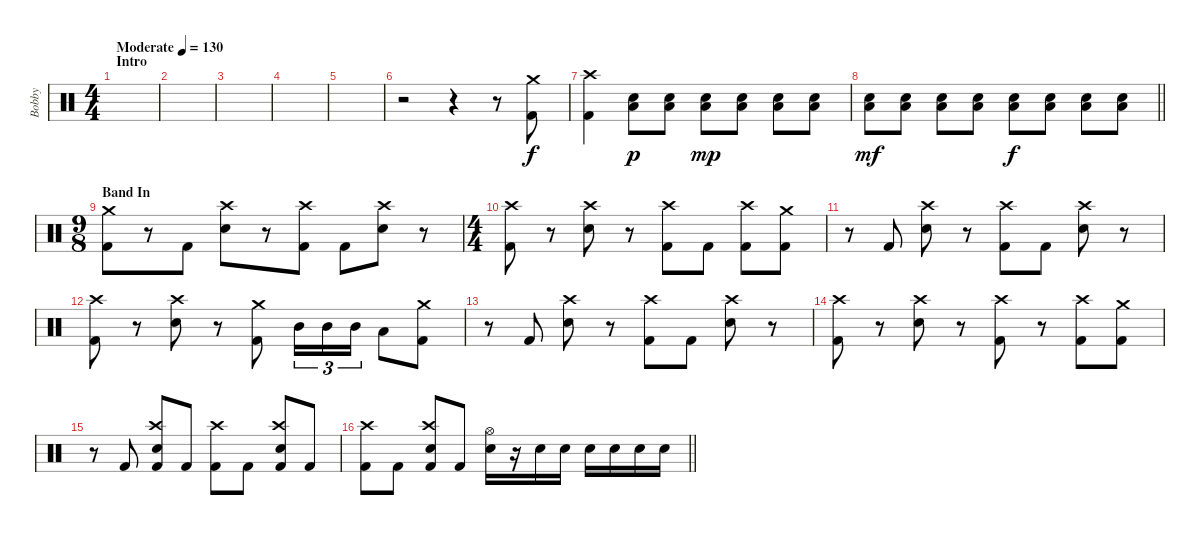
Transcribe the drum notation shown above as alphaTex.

\track ("Bobby" "Bobby") {instrument percussion}
\staff {score}
\articulation defaults
\ts (4 4)
\section ("" "Intro")
\tempo (130 "Moderate")
\clef neutral
\ks c
|
|
|
|
|
r.2 r.4 r.8 ("Crash medium (hit)" "Kick (hit) 2").8 |
("Crash high (hit)" "Kick (hit) 2").4 ("Electric Snare (hit)" "Low Tom (hit)").8{dy p} ("Electric Snare (hit)" "Low Tom (hit)").8 ("Electric Snare (hit)" "Low Tom (hit)").8{dy mp} ("Electric Snare (hit)" "Low Tom (hit)").8 ("Electric Snare (hit)" "Low Tom (hit)").8 ("Electric Snare (hit)" "Low Tom (hit)").8 |
\barLineRight lightlight
("Electric Snare (hit)" "Low Tom (hit)").8{dy mf} ("Electric Snare (hit)" "Low Tom (hit)").8 ("Electric Snare (hit)" "Low Tom (hit)").8 ("Electric Snare (hit)" "Low Tom (hit)").8 ("Electric Snare (hit)" "Low Tom (hit)").8{dy f} ("Electric Snare (hit)" "Low Tom (hit)").8 ("Electric Snare (hit)" "Low Tom (hit)").8 ("Electric Snare (hit)" "Low Tom (hit)").8 |
\ts (9 8)
\section ("" "Band In")
("Crash medium (hit)" "Kick (hit) 2").8 r.8 "Kick (hit) 2".8 ("Crash high (hit)" "Electric Snare (hit)").8 r.8 ("Crash high (hit)" "Kick (hit) 2").8 "Kick (hit) 2".8 ("Crash high (hit)" "Electric Snare (hit)").8 r.8 |
\ts (4 4)
("Crash high (hit)" "Kick (hit) 2").8 r.8 ("Crash high (hit)" "Electric Snare (hit)").8 r.8 ("Crash high (hit)" "Kick (hit) 2").8 "Kick (hit) 2".8 ("Crash high (hit)" "Kick (hit) 2").8 ("Crash medium (hit)" "Kick (hit) 2").8 |
r.8 "Kick (hit) 2".8 ("Crash high (hit)" "Electric Snare (hit)").8 r.8 ("Crash high (hit)" "Kick (hit) 2").8 "Kick (hit) 2".8 ("Crash high (hit)" "Electric Snare (hit)").8 r.8 |
("Crash high (hit)" "Kick (hit) 2").8 r.8 ("Crash high (hit)" "Electric Snare (hit)").8 r.8 ("Crash medium (hit)" "Kick (hit) 2").8 "Mid Tom (hit)".16{tu (3 2)} "Mid Tom (hit)".16{tu (3 2)} "Mid Tom (hit)".16{tu (3 2)} "Low Tom (hit)".8 ("Crash medium (hit)" "Kick (hit) 2").8 |
r.8 "Kick (hit) 2".8 ("Crash high (hit)" "Electric Snare (hit)").8 r.8 ("Crash high (hit)" "Kick (hit) 2").8 "Kick (hit) 2".8 ("Crash high (hit)" "Electric Snare (hit)").8 r.8 |
("Crash high (hit)" "Kick (hit) 2").8 r.8 ("Crash high (hit)" "Electric Snare (hit)").8 r.8 ("Crash high (hit)" "Kick (hit) 2").8 r.8 ("Crash high (hit)" "Kick (hit) 2").8 ("Crash medium (hit)" "Kick (hit) 2").8 |
r.8 "Kick (hit) 2".8 ("Crash high (hit)" "Electric Snare (hit)" "Kick (hit) 2").8 "Kick (hit) 2".8 ("Crash high (hit)" "Kick (hit) 2").8 "Kick (hit) 2".8 ("Crash high (hit)" "Electric Snare (hit)" "Kick (hit) 2").8 "Kick (hit) 2".8 |
\barLineRight lightlight
("Crash high (hit)" "Kick (hit) 2").8 "Kick (hit) 2".8 ("Crash high (hit)" "Electric Snare (hit)" "Kick (hit) 2").8 "Kick (hit) 2".8 ("Hi-Hat (open)" "Electric Snare (hit)").16 r.16 "Electric Snare (hit)".16 "Electric Snare (hit)".16 "Electric Snare (hit)".16 "Electric Snare (hit)".16 "Electric Snare (hit)".16 "Electric Snare (hit)".16
